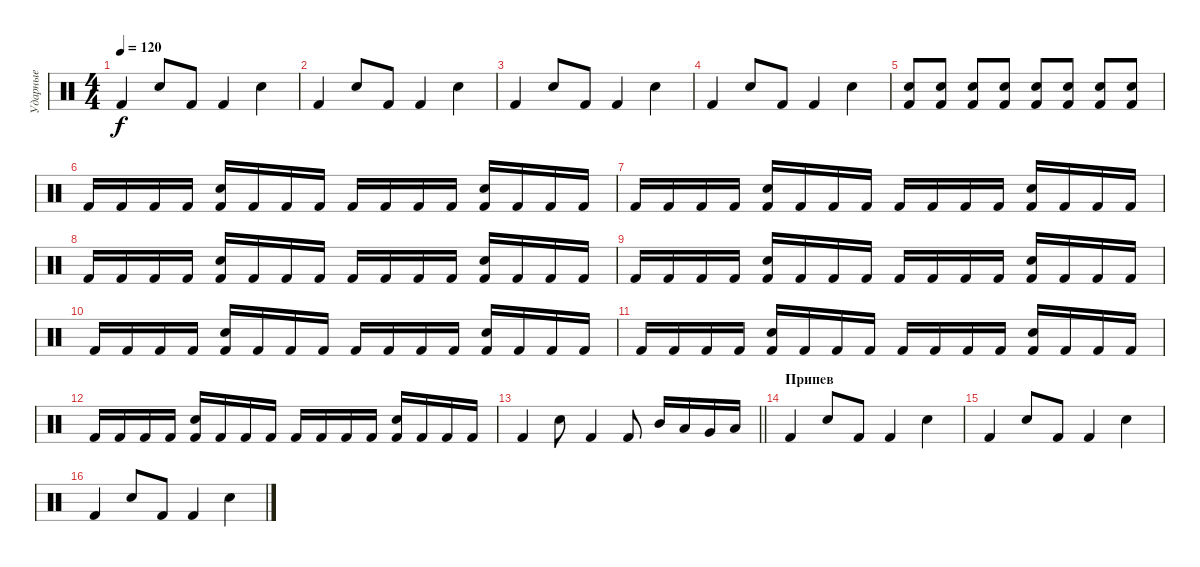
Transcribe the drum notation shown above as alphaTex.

\track ("Ударные" "Ударные") {instrument percussion}
\staff {score}
\articulation defaults
\ts (4 4)
\tempo 120
\clef neutral
\ks c "Kick (hit) 2".4{dy f} "Electric Snare (hit)".8 "Kick (hit) 2".8 "Kick (hit) 2".4 "Electric Snare (hit)".4
|
"Kick (hit) 2".4 "Electric Snare (hit)".8 "Kick (hit) 2".8 "Kick (hit) 2".4 "Electric Snare (hit)".4 |
"Kick (hit) 2".4 "Electric Snare (hit)".8 "Kick (hit) 2".8 "Kick (hit) 2".4 "Electric Snare (hit)".4 |
"Kick (hit) 2".4 "Electric Snare (hit)".8 "Kick (hit) 2".8 "Kick (hit) 2".4 "Electric Snare (hit)".4 |
("Kick (hit) 2" "Electric Snare (hit)").8 ("Kick (hit) 2" "Electric Snare (hit)").8 ("Kick (hit) 2" "Electric Snare (hit)").8 ("Kick (hit) 2" "Electric Snare (hit)").8 ("Kick (hit) 2" "Electric Snare (hit)").8 ("Kick (hit) 2" "Electric Snare (hit)").8 ("Kick (hit) 2" "Electric Snare (hit)").8 ("Kick (hit) 2" "Electric Snare (hit)").8 |
"Kick (hit) 2".16 "Kick (hit) 2".16 "Kick (hit) 2".16 "Kick (hit) 2".16 ("Kick (hit) 2" "Electric Snare (hit)").16 "Kick (hit) 2".16 "Kick (hit) 2".16 "Kick (hit) 2".16 "Kick (hit) 2".16 "Kick (hit) 2".16 "Kick (hit) 2".16 "Kick (hit) 2".16 ("Kick (hit) 2" "Electric Snare (hit)").16 "Kick (hit) 2".16 "Kick (hit) 2".16 "Kick (hit) 2".16 |
"Kick (hit) 2".16 "Kick (hit) 2".16 "Kick (hit) 2".16 "Kick (hit) 2".16 ("Kick (hit) 2" "Electric Snare (hit)").16 "Kick (hit) 2".16 "Kick (hit) 2".16 "Kick (hit) 2".16 "Kick (hit) 2".16 "Kick (hit) 2".16 "Kick (hit) 2".16 "Kick (hit) 2".16 ("Kick (hit) 2" "Electric Snare (hit)").16 "Kick (hit) 2".16 "Kick (hit) 2".16 "Kick (hit) 2".16 |
"Kick (hit) 2".16 "Kick (hit) 2".16 "Kick (hit) 2".16 "Kick (hit) 2".16 ("Kick (hit) 2" "Electric Snare (hit)").16 "Kick (hit) 2".16 "Kick (hit) 2".16 "Kick (hit) 2".16 "Kick (hit) 2".16 "Kick (hit) 2".16 "Kick (hit) 2".16 "Kick (hit) 2".16 ("Kick (hit) 2" "Electric Snare (hit)").16 "Kick (hit) 2".16 "Kick (hit) 2".16 "Kick (hit) 2".16 |
"Kick (hit) 2".16 "Kick (hit) 2".16 "Kick (hit) 2".16 "Kick (hit) 2".16 ("Kick (hit) 2" "Electric Snare (hit)").16 "Kick (hit) 2".16 "Kick (hit) 2".16 "Kick (hit) 2".16 "Kick (hit) 2".16 "Kick (hit) 2".16 "Kick (hit) 2".16 "Kick (hit) 2".16 ("Kick (hit) 2" "Electric Snare (hit)").16 "Kick (hit) 2".16 "Kick (hit) 2".16 "Kick (hit) 2".16 |
"Kick (hit) 2".16 "Kick (hit) 2".16 "Kick (hit) 2".16 "Kick (hit) 2".16 ("Kick (hit) 2" "Electric Snare (hit)").16 "Kick (hit) 2".16 "Kick (hit) 2".16 "Kick (hit) 2".16 "Kick (hit) 2".16 "Kick (hit) 2".16 "Kick (hit) 2".16 "Kick (hit) 2".16 ("Kick (hit) 2" "Electric Snare (hit)").16 "Kick (hit) 2".16 "Kick (hit) 2".16 "Kick (hit) 2".16 |
"Kick (hit) 2".16 "Kick (hit) 2".16 "Kick (hit) 2".16 "Kick (hit) 2".16 ("Kick (hit) 2" "Electric Snare (hit)").16 "Kick (hit) 2".16 "Kick (hit) 2".16 "Kick (hit) 2".16 "Kick (hit) 2".16 "Kick (hit) 2".16 "Kick (hit) 2".16 "Kick (hit) 2".16 ("Kick (hit) 2" "Electric Snare (hit)").16 "Kick (hit) 2".16 "Kick (hit) 2".16 "Kick (hit) 2".16 |
"Kick (hit) 2".16 "Kick (hit) 2".16 "Kick (hit) 2".16 "Kick (hit) 2".16 ("Kick (hit) 2" "Electric Snare (hit)").16 "Kick (hit) 2".16 "Kick (hit) 2".16 "Kick (hit) 2".16 "Kick (hit) 2".16 "Kick (hit) 2".16 "Kick (hit) 2".16 "Kick (hit) 2".16 ("Kick (hit) 2" "Electric Snare (hit)").16 "Kick (hit) 2".16 "Kick (hit) 2".16 "Kick (hit) 2".16 |
\barLineRight lightlight "Kick (hit) 2".4 "Electric Snare (hit)".8 "Kick (hit) 2".4 "Kick (hit) 2".8 "Mid Tom (hit)".16 "Low Tom (hit)".16 "Very Low Tom (hit)".16 "Low Floor Tom (hit)".16
|
\section ("" "Припев")
"Kick (hit) 2".4 "Electric Snare (hit)".8 "Kick (hit) 2".8 "Kick (hit) 2".4 "Electric Snare (hit)".4 |
"Kick (hit) 2".4 "Electric Snare (hit)".8 "Kick (hit) 2".8 "Kick (hit) 2".4 "Electric Snare (hit)".4 |
"Kick (hit) 2".4 "Electric Snare (hit)".8 "Kick (hit) 2".8 "Kick (hit) 2".4 "Electric Snare (hit)".4
